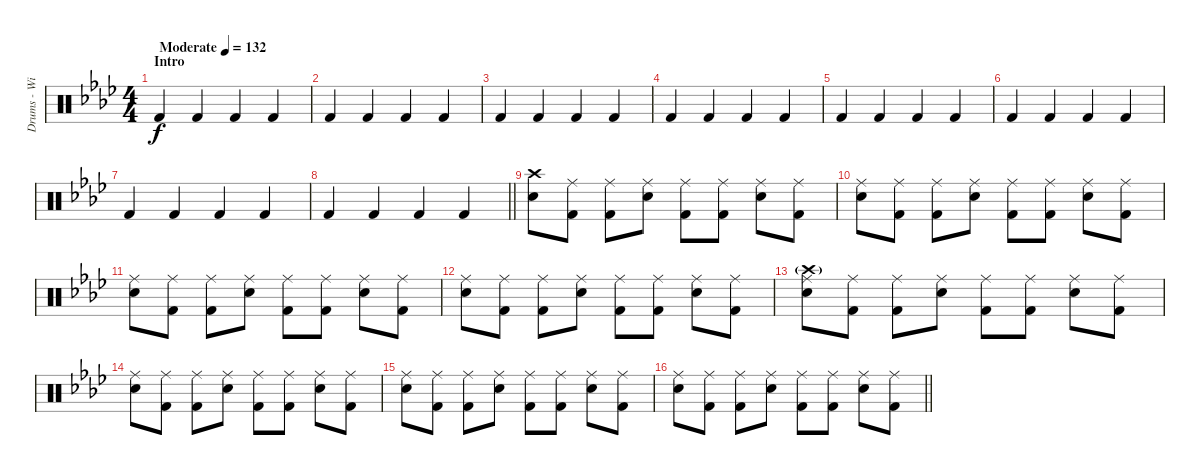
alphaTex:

\track ("Drums - Will" "Drums - Wi") {instrument percussion}
\staff {score}
\articulation defaults
\ts (4 4)
\section ("" "Intro")
\tempo (132 "Moderate")
\clef neutral
\ks ab "Kick (hit) 2".4{dy f} "Kick (hit) 2".4 "Kick (hit) 2".4 "Kick (hit) 2".4
|
"Kick (hit) 2".4 "Kick (hit) 2".4 "Kick (hit) 2".4 "Kick (hit) 2".4 |
"Kick (hit) 2".4 "Kick (hit) 2".4 "Kick (hit) 2".4 "Kick (hit) 2".4 |
"Kick (hit) 2".4 "Kick (hit) 2".4 "Kick (hit) 2".4 "Kick (hit) 2".4 |
"Kick (hit) 2".4 "Kick (hit) 2".4 "Kick (hit) 2".4 "Kick (hit) 2".4 |
"Kick (hit) 2".4 "Kick (hit) 2".4 "Kick (hit) 2".4 "Kick (hit) 2".4 |
"Kick (hit) 2".4 "Kick (hit) 2".4 "Kick (hit) 2".4 "Kick (hit) 2".4 |
\barLineRight lightlight "Kick (hit) 2".4 "Kick (hit) 2".4 "Kick (hit) 2".4 "Kick (hit) 2".4
|
("Crash high (hit)" "Electric Snare (hit)").8 ("Ride (middle)" "Kick (hit) 2").8 ("Ride (middle)" "Kick (hit) 2").8 ("Ride (middle)" "Electric Snare (hit)").8 ("Ride (middle)" "Kick (hit) 2").8 ("Ride (middle)" "Kick (hit) 2").8 ("Ride (middle)" "Electric Snare (hit)").8 ("Ride (middle)" "Kick (hit) 2").8 |
("Ride (middle)" "Electric Snare (hit)").8 ("Ride (middle)" "Kick (hit) 2").8 ("Ride (middle)" "Kick (hit) 2").8 ("Ride (middle)" "Electric Snare (hit)").8 ("Ride (middle)" "Kick (hit) 2").8 ("Ride (middle)" "Kick (hit) 2").8 ("Ride (middle)" "Electric Snare (hit)").8 ("Ride (middle)" "Kick (hit) 2").8 |
("Ride (middle)" "Electric Snare (hit)").8 ("Ride (middle)" "Kick (hit) 2").8 ("Ride (middle)" "Kick (hit) 2").8 ("Ride (middle)" "Electric Snare (hit)").8 ("Ride (middle)" "Kick (hit) 2").8 ("Ride (middle)" "Kick (hit) 2").8 ("Ride (middle)" "Electric Snare (hit)").8 ("Ride (middle)" "Kick (hit) 2").8 |
("Ride (middle)" "Electric Snare (hit)").8 ("Ride (middle)" "Kick (hit) 2").8 ("Ride (middle)" "Kick (hit) 2").8 ("Ride (middle)" "Electric Snare (hit)").8 ("Ride (middle)" "Kick (hit) 2").8 ("Ride (middle)" "Kick (hit) 2").8 ("Ride (middle)" "Electric Snare (hit)").8 ("Ride (middle)" "Kick (hit) 2").8 |
("Crash high (hit)"{g} "Ride (middle)" "Electric Snare (hit)").8 ("Ride (middle)" "Kick (hit) 2").8 ("Ride (middle)" "Kick (hit) 2").8 ("Ride (middle)" "Electric Snare (hit)").8 ("Ride (middle)" "Kick (hit) 2").8 ("Ride (middle)" "Kick (hit) 2").8 ("Ride (middle)" "Electric Snare (hit)").8 ("Ride (middle)" "Kick (hit) 2").8 |
("Ride (middle)" "Electric Snare (hit)").8 ("Ride (middle)" "Kick (hit) 2").8 ("Ride (middle)" "Kick (hit) 2").8 ("Ride (middle)" "Electric Snare (hit)").8 ("Ride (middle)" "Kick (hit) 2").8 ("Ride (middle)" "Kick (hit) 2").8 ("Ride (middle)" "Electric Snare (hit)").8 ("Ride (middle)" "Kick (hit) 2").8 |
("Ride (middle)" "Electric Snare (hit)").8 ("Ride (middle)" "Kick (hit) 2").8 ("Ride (middle)" "Kick (hit) 2").8 ("Ride (middle)" "Electric Snare (hit)").8 ("Ride (middle)" "Kick (hit) 2").8 ("Ride (middle)" "Kick (hit) 2").8 ("Ride (middle)" "Electric Snare (hit)").8 ("Ride (middle)" "Kick (hit) 2").8 |
\barLineRight lightlight
("Ride (middle)" "Electric Snare (hit)").8 ("Ride (middle)" "Kick (hit) 2").8 ("Ride (middle)" "Kick (hit) 2").8 ("Ride (middle)" "Electric Snare (hit)").8 ("Ride (middle)" "Kick (hit) 2").8 ("Ride (middle)" "Kick (hit) 2").8 ("Ride (middle)" "Electric Snare (hit)").8 ("Ride (middle)" "Kick (hit) 2").8
